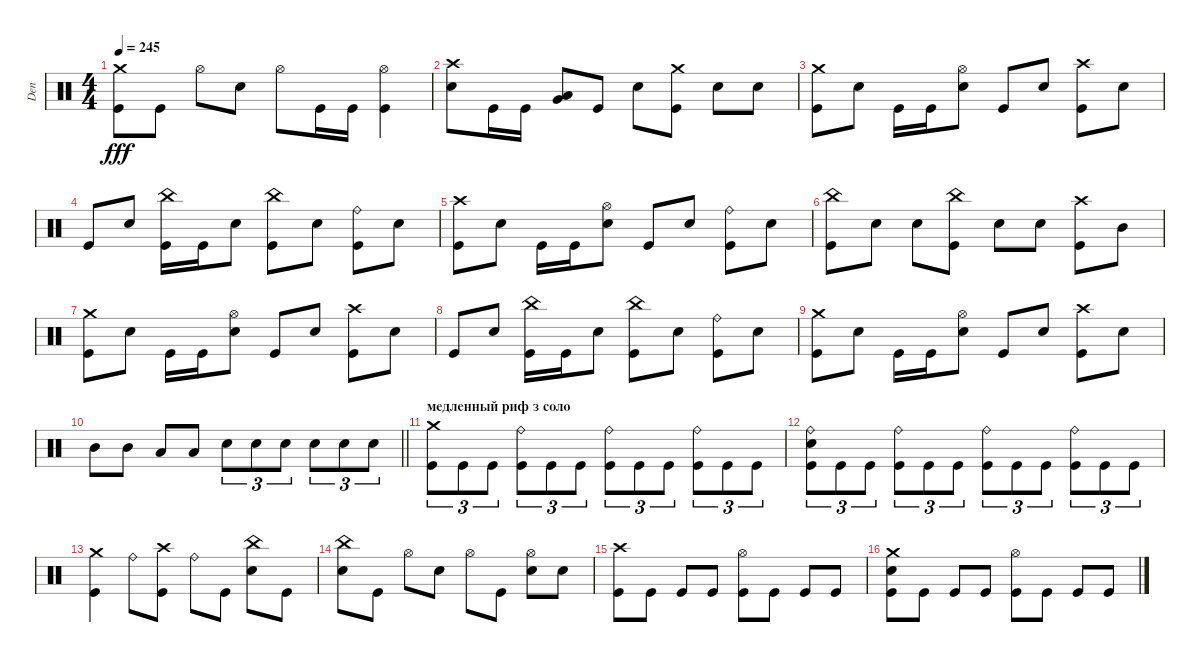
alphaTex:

\track ("Den" "Den") {instrument percussion}
\staff {score}
\articulation defaults
\ts (4 4)
\tempo 245
\clef neutral
\ks c
("Crash medium (hit)" "Kick (hit)").8{dy fff} "Kick (hit)".8 "Hi-Hat (open)".8 "Electric Snare (hit)".8 "Hi-Hat (open)".8 "Kick (hit)".16 "Kick (hit)".16 ("Kick (hit)" "Hi-Hat (open)").4 |
("Electric Snare (hit)" "Crash high (hit)").8 "Kick (hit)".16 "Kick (hit)".16 ("Very Low Tom (hit)" "Low Tom (hit)").8 "Kick (hit)".8 "Electric Snare (hit)".8 ("Crash medium (hit)" "Kick (hit)").8 "Electric Snare (hit)".8 "Electric Snare (hit)".8 |
("Kick (hit)" "Crash medium (hit)").8 "Electric Snare (hit)".8 "Kick (hit)".16 "Kick (hit)".16 ("Electric Snare (hit)" "Hi-Hat (open)").8 "Kick (hit)".8 "Electric Snare (hit)".8 ("Kick (hit)" "Crash high (hit)").8 "Electric Snare (hit)".8 |
"Kick (hit)".8 "Electric Snare (hit)".8 ("Kick (hit)" "China (hit)").16 "Kick (hit)".16 "Electric Snare (hit)".8 ("Kick (hit)" "China (hit)").8 "Electric Snare (hit)".8 ("Kick (hit)" "Ride (bell)").8 "Electric Snare (hit)".8 |
("Kick (hit)" "Crash high (hit)").8 "Electric Snare (hit)".8 "Kick (hit)".16 "Kick (hit)".16 ("Electric Snare (hit)" "Hi-Hat (open)").8 "Kick (hit)".8 "Electric Snare (hit)".8 ("Kick (hit)" "Ride (bell)").8 "Electric Snare (hit)".8 |
("China (hit)" "Kick (hit)").8 "Electric Snare (hit)".8 "Electric Snare (hit)".8 ("China (hit)" "Kick (hit)").8 "Electric Snare (hit)".8 "Electric Snare (hit)".8 ("Crash high (hit)" "Kick (hit)").8 "Mid Tom (hit)".8 |
("Kick (hit)" "Crash medium (hit)").8 "Electric Snare (hit)".8 "Kick (hit)".16 "Kick (hit)".16 ("Electric Snare (hit)" "Hi-Hat (open)").8 "Kick (hit)".8 "Electric Snare (hit)".8 ("Kick (hit)" "Crash high (hit)").8 "Electric Snare (hit)".8 |
"Kick (hit)".8 "Electric Snare (hit)".8 ("Kick (hit)" "China (hit)").16 "Kick (hit)".16 "Electric Snare (hit)".8 ("Kick (hit)" "China (hit)").8 "Electric Snare (hit)".8 ("Kick (hit)" "Ride (bell)").8 "Electric Snare (hit)".8 |
("Kick (hit)" "Crash medium (hit)").8 "Electric Snare (hit)".8 "Kick (hit)".16 "Kick (hit)".16 ("Electric Snare (hit)" "Hi-Hat (open)").8 "Kick (hit)".8 "Electric Snare (hit)".8 ("Kick (hit)" "Crash high (hit)").8 "Electric Snare (hit)".8 |
\barLineRight lightlight "Mid Tom (hit)".8 "Mid Tom (hit)".8 "Low Tom (hit)".8 "Low Tom (hit)".8 "Electric Snare (hit)".8{tu (3 2)} "Electric Snare (hit)".8{tu (3 2)} "Electric Snare (hit)".8{tu (3 2)} "Electric Snare (hit)".8{tu (3 2)} "Electric Snare (hit)".8{tu (3 2)} "Electric Snare (hit)".8{tu (3 2)}
|
\section ("" "медленный риф з соло")
("Kick (hit)" "Crash medium (hit)").8{tu (3 2)} "Kick (hit)".8{tu (3 2)} "Kick (hit)".8{tu (3 2)} ("Kick (hit)" "Ride (bell)").8{tu (3 2)} "Kick (hit)".8{tu (3 2)} "Kick (hit)".8{tu (3 2)} ("Kick (hit)" "Ride (bell)").8{tu (3 2)} "Kick (hit)".8{tu (3 2)} "Kick (hit)".8{tu (3 2)} ("Kick (hit)" "Ride (bell)").8{tu (3 2)} "Kick (hit)".8{tu (3 2)} "Kick (hit)".8{tu (3 2)} |
("Kick (hit)" "Electric Snare (hit)" "Ride (bell)").8{tu (3 2)} "Kick (hit)".8{tu (3 2)} "Kick (hit)".8{tu (3 2)} ("Kick (hit)" "Ride (bell)").8{tu (3 2)} "Kick (hit)".8{tu (3 2)} "Kick (hit)".8{tu (3 2)} ("Kick (hit)" "Ride (bell)").8{tu (3 2)} "Kick (hit)".8{tu (3 2)} "Kick (hit)".8{tu (3 2)} ("Kick (hit)" "Ride (bell)").8{tu (3 2)} "Kick (hit)".8{tu (3 2)} "Kick (hit)".8{tu (3 2)} |
("Crash medium (hit)" "Kick (hit)").4 "Ride (bell)".8 ("Crash high (hit)" "Kick (hit)").8 "Ride (bell)".8 "Kick (hit)".8 ("Electric Snare (hit)" "China (hit)").8 "Kick (hit)".8 |
("Electric Snare (hit)" "China (hit)").8 "Kick (hit)".8 "Hi-Hat (open)".8 "Electric Snare (hit)".8 "Hi-Hat (open)".8 "Kick (hit)".8 ("Electric Snare (hit)" "Hi-Hat (open)").8 "Electric Snare (hit)".8 |
("Crash high (hit)" "Kick (hit)").8 "Kick (hit)".8 "Kick (hit)".8 "Kick (hit)".8 ("Hi-Hat (open)" "Kick (hit)").8 "Kick (hit)".8 "Kick (hit)".8 "Kick (hit)".8 |
("Electric Snare (hit)" "Crash medium (hit)" "Kick (hit)").8 "Kick (hit)".8 "Kick (hit)".8 "Kick (hit)".8 ("Kick (hit)" "Hi-Hat (open)").8 "Kick (hit)".8 "Kick (hit)".8 "Kick (hit)".8
